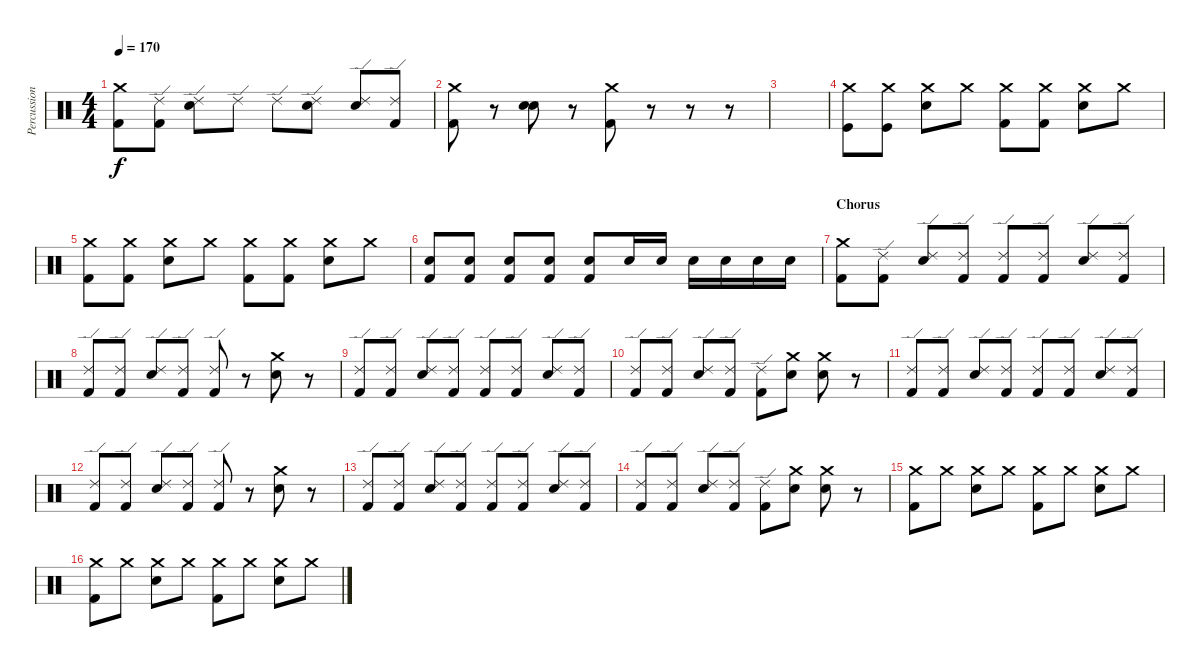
\track ("Percussion" "Percussion") {instrument percussion}
\staff {score}
\articulation defaults
\ts (4 4)
\tempo 170
\clef neutral
\ks c
("Crash medium (hit)" "Kick (hit) 2").8{dy f} ("Ride (edge) 2" "Kick (hit) 2").8 ("Ride (edge) 2" "Snare (hit) 2").8 "Ride (edge) 2".8 "Ride (edge) 2".8 ("Ride (edge) 2" "Snare (hit) 2").8 ("Ride (edge) 2" "Snare (hit) 2").8 ("Ride (edge) 2" "Kick (hit) 2").8 |
("Crash medium (hit)" "Kick (hit) 2").8 r.8 ("Snare (hit) 2" "Snare (hit) 2").8{bu 120} r.8 ("Crash medium (hit)" "Kick (hit) 2").8 r.8 r.8 r.8 |
|
("Crash medium (hit)" "Kick (hit)").8 ("Crash medium (hit)" "Kick (hit)").8 ("Crash medium (hit)" "Snare (hit) 2").8 "Crash medium (hit)".8 ("Crash medium (hit)" "Kick (hit) 2").8 ("Crash medium (hit)" "Kick (hit) 2").8 ("Crash medium (hit)" "Snare (hit) 2").8 "Crash medium (hit)".8 |
("Crash medium (hit)" "Kick (hit) 2").8 ("Crash medium (hit)" "Kick (hit) 2").8 ("Crash medium (hit)" "Snare (hit) 2").8 "Crash medium (hit)".8 ("Crash medium (hit)" "Kick (hit) 2").8 ("Crash medium (hit)" "Kick (hit) 2").8 ("Crash medium (hit)" "Snare (hit) 2").8 "Crash medium (hit)".8 |
("Snare (hit) 2" "Kick (hit) 2").8 ("Snare (hit) 2" "Kick (hit) 2").8 ("Snare (hit) 2" "Kick (hit) 2").8 ("Snare (hit) 2" "Kick (hit) 2").8 ("Snare (hit) 2" "Kick (hit) 2").8 "Snare (hit) 2".16 "Snare (hit) 2".16 "Snare (hit) 2".16 "Snare (hit) 2".16 "Snare (hit) 2".16 "Snare (hit) 2".16 |
\section ("" "Chorus")
("Crash medium (hit)" "Kick (hit) 2").8 ("Ride (edge) 2" "Kick (hit) 2").8 ("Ride (edge) 2" "Snare (hit) 2").8 ("Ride (edge) 2" "Kick (hit) 2").8 ("Ride (edge) 2" "Kick (hit) 2").8 ("Ride (edge) 2" "Kick (hit) 2").8 ("Ride (edge) 2" "Snare (hit) 2").8 ("Ride (edge) 2" "Kick (hit) 2").8 |
("Ride (edge) 2" "Kick (hit) 2").8 ("Ride (edge) 2" "Kick (hit) 2").8 ("Ride (edge) 2" "Snare (hit) 2").8 ("Ride (edge) 2" "Kick (hit) 2").8 ("Ride (edge) 2" "Kick (hit) 2").8 r.8 ("Crash medium (hit)" "Snare (hit) 2").8 r.8 |
("Ride (edge) 2" "Kick (hit) 2").8 ("Ride (edge) 2" "Kick (hit) 2").8 ("Ride (edge) 2" "Snare (hit) 2").8 ("Ride (edge) 2" "Kick (hit) 2").8 ("Ride (edge) 2" "Kick (hit) 2").8 ("Ride (edge) 2" "Kick (hit) 2").8 ("Ride (edge) 2" "Snare (hit) 2").8 ("Ride (edge) 2" "Kick (hit) 2").8 |
("Ride (edge) 2" "Kick (hit) 2").8 ("Ride (edge) 2" "Kick (hit) 2").8 ("Ride (edge) 2" "Snare (hit) 2").8 ("Ride (edge) 2" "Kick (hit) 2").8 ("Ride (edge) 2" "Kick (hit) 2").8 ("Crash medium (hit)" "Snare (hit) 2").8 ("Crash medium (hit)" "Snare (hit) 2").8 r.8 |
("Ride (edge) 2" "Kick (hit) 2").8 ("Ride (edge) 2" "Kick (hit) 2").8 ("Ride (edge) 2" "Snare (hit) 2").8 ("Ride (edge) 2" "Kick (hit) 2").8 ("Ride (edge) 2" "Kick (hit) 2").8 ("Ride (edge) 2" "Kick (hit) 2").8 ("Ride (edge) 2" "Snare (hit) 2").8 ("Ride (edge) 2" "Kick (hit) 2").8 |
("Ride (edge) 2" "Kick (hit) 2").8 ("Ride (edge) 2" "Kick (hit) 2").8 ("Ride (edge) 2" "Snare (hit) 2").8 ("Ride (edge) 2" "Kick (hit) 2").8 ("Ride (edge) 2" "Kick (hit) 2").8 r.8 ("Crash medium (hit)" "Snare (hit) 2").8 r.8 |
("Ride (edge) 2" "Kick (hit) 2").8 ("Ride (edge) 2" "Kick (hit) 2").8 ("Ride (edge) 2" "Snare (hit) 2").8 ("Ride (edge) 2" "Kick (hit) 2").8 ("Ride (edge) 2" "Kick (hit) 2").8 ("Ride (edge) 2" "Kick (hit) 2").8 ("Ride (edge) 2" "Snare (hit) 2").8 ("Ride (edge) 2" "Kick (hit) 2").8 |
("Ride (edge) 2" "Kick (hit) 2").8 ("Ride (edge) 2" "Kick (hit) 2").8 ("Ride (edge) 2" "Snare (hit) 2").8 ("Ride (edge) 2" "Kick (hit) 2").8 ("Ride (edge) 2" "Kick (hit) 2").8 ("Crash medium (hit)" "Snare (hit) 2").8 ("Crash medium (hit)" "Snare (hit) 2").8 r.8 |
("Crash medium (hit)" "Kick (hit) 2").8 "Crash medium (hit)".8 ("Crash medium (hit)" "Snare (hit) 2").8 "Crash medium (hit)".8 ("Crash medium (hit)" "Kick (hit) 2").8 "Crash medium (hit)".8 ("Crash medium (hit)" "Snare (hit) 2").8 "Crash medium (hit)".8 |
("Crash medium (hit)" "Kick (hit) 2").8 "Crash medium (hit)".8 ("Crash medium (hit)" "Snare (hit) 2").8 "Crash medium (hit)".8 ("Crash medium (hit)" "Kick (hit) 2").8 "Crash medium (hit)".8 ("Crash medium (hit)" "Snare (hit) 2").8 "Crash medium (hit)".8
